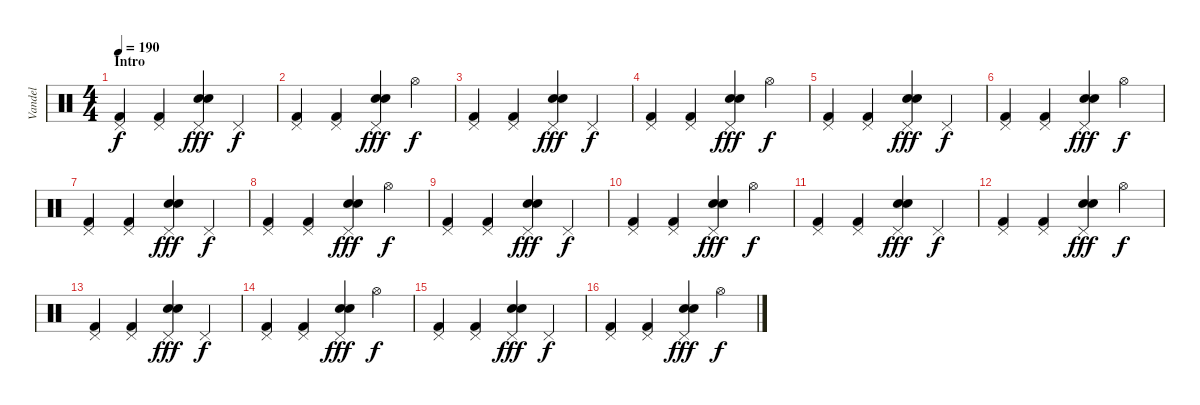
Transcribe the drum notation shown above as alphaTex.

\track ("Vandel" "Vandel") {instrument percussion}
\staff {score}
\articulation defaults
\ts (4 4)
\section ("" "Intro")
\tempo 190
\clef neutral
\ks c
("Pedal Hi-Hat (hit)" "Kick (hit) 2").4{dy f} ("Pedal Hi-Hat (hit)" "Kick (hit) 2").4 ("Pedal Hi-Hat (hit)" "Electric Snare (hit)" "Electric Snare (hit)").4{dy fff} "Pedal Hi-Hat (hit)".4{dy f} |
("Pedal Hi-Hat (hit)" "Kick (hit) 2").4 ("Pedal Hi-Hat (hit)" "Kick (hit) 2").4 ("Pedal Hi-Hat (hit)" "Electric Snare (hit)" "Electric Snare (hit)").4{dy fff} "Hi-Hat (open)".4{dy f} |
("Pedal Hi-Hat (hit)" "Kick (hit) 2").4 ("Pedal Hi-Hat (hit)" "Kick (hit) 2").4 ("Pedal Hi-Hat (hit)" "Electric Snare (hit)" "Electric Snare (hit)").4{dy fff} "Pedal Hi-Hat (hit)".4{dy f} |
("Pedal Hi-Hat (hit)" "Kick (hit) 2").4 ("Pedal Hi-Hat (hit)" "Kick (hit) 2").4 ("Pedal Hi-Hat (hit)" "Electric Snare (hit)" "Electric Snare (hit)").4{dy fff} "Hi-Hat (open)".4{dy f} |
("Pedal Hi-Hat (hit)" "Kick (hit) 2").4 ("Pedal Hi-Hat (hit)" "Kick (hit) 2").4 ("Pedal Hi-Hat (hit)" "Electric Snare (hit)" "Electric Snare (hit)").4{dy fff} "Pedal Hi-Hat (hit)".4{dy f} |
("Pedal Hi-Hat (hit)" "Kick (hit) 2").4 ("Pedal Hi-Hat (hit)" "Kick (hit) 2").4 ("Pedal Hi-Hat (hit)" "Electric Snare (hit)" "Electric Snare (hit)").4{dy fff} "Hi-Hat (open)".4{dy f} |
("Pedal Hi-Hat (hit)" "Kick (hit) 2").4 ("Pedal Hi-Hat (hit)" "Kick (hit) 2").4 ("Pedal Hi-Hat (hit)" "Electric Snare (hit)" "Electric Snare (hit)").4{dy fff} "Pedal Hi-Hat (hit)".4{dy f} |
("Pedal Hi-Hat (hit)" "Kick (hit) 2").4 ("Pedal Hi-Hat (hit)" "Kick (hit) 2").4 ("Pedal Hi-Hat (hit)" "Electric Snare (hit)" "Electric Snare (hit)").4{dy fff} "Hi-Hat (open)".4{dy f} |
("Pedal Hi-Hat (hit)" "Kick (hit) 2").4 ("Pedal Hi-Hat (hit)" "Kick (hit) 2").4 ("Pedal Hi-Hat (hit)" "Electric Snare (hit)" "Electric Snare (hit)").4{dy fff} "Pedal Hi-Hat (hit)".4{dy f} |
("Pedal Hi-Hat (hit)" "Kick (hit) 2").4 ("Pedal Hi-Hat (hit)" "Kick (hit) 2").4 ("Pedal Hi-Hat (hit)" "Electric Snare (hit)" "Electric Snare (hit)").4{dy fff} "Hi-Hat (open)".4{dy f} |
("Pedal Hi-Hat (hit)" "Kick (hit) 2").4 ("Pedal Hi-Hat (hit)" "Kick (hit) 2").4 ("Pedal Hi-Hat (hit)" "Electric Snare (hit)" "Electric Snare (hit)").4{dy fff} "Pedal Hi-Hat (hit)".4{dy f} |
("Pedal Hi-Hat (hit)" "Kick (hit) 2").4 ("Pedal Hi-Hat (hit)" "Kick (hit) 2").4 ("Pedal Hi-Hat (hit)" "Electric Snare (hit)" "Electric Snare (hit)").4{dy fff} "Hi-Hat (open)".4{dy f} |
("Pedal Hi-Hat (hit)" "Kick (hit) 2").4 ("Pedal Hi-Hat (hit)" "Kick (hit) 2").4 ("Pedal Hi-Hat (hit)" "Electric Snare (hit)" "Electric Snare (hit)").4{dy fff} "Pedal Hi-Hat (hit)".4{dy f} |
("Pedal Hi-Hat (hit)" "Kick (hit) 2").4 ("Pedal Hi-Hat (hit)" "Kick (hit) 2").4 ("Pedal Hi-Hat (hit)" "Electric Snare (hit)" "Electric Snare (hit)").4{dy fff} "Hi-Hat (open)".4{dy f} |
("Pedal Hi-Hat (hit)" "Kick (hit) 2").4 ("Pedal Hi-Hat (hit)" "Kick (hit) 2").4 ("Pedal Hi-Hat (hit)" "Electric Snare (hit)" "Electric Snare (hit)").4{dy fff} "Pedal Hi-Hat (hit)".4{dy f} |
("Pedal Hi-Hat (hit)" "Kick (hit) 2").4 ("Pedal Hi-Hat (hit)" "Kick (hit) 2").4 ("Pedal Hi-Hat (hit)" "Electric Snare (hit)" "Electric Snare (hit)").4{dy fff} "Hi-Hat (open)".4{dy f}
